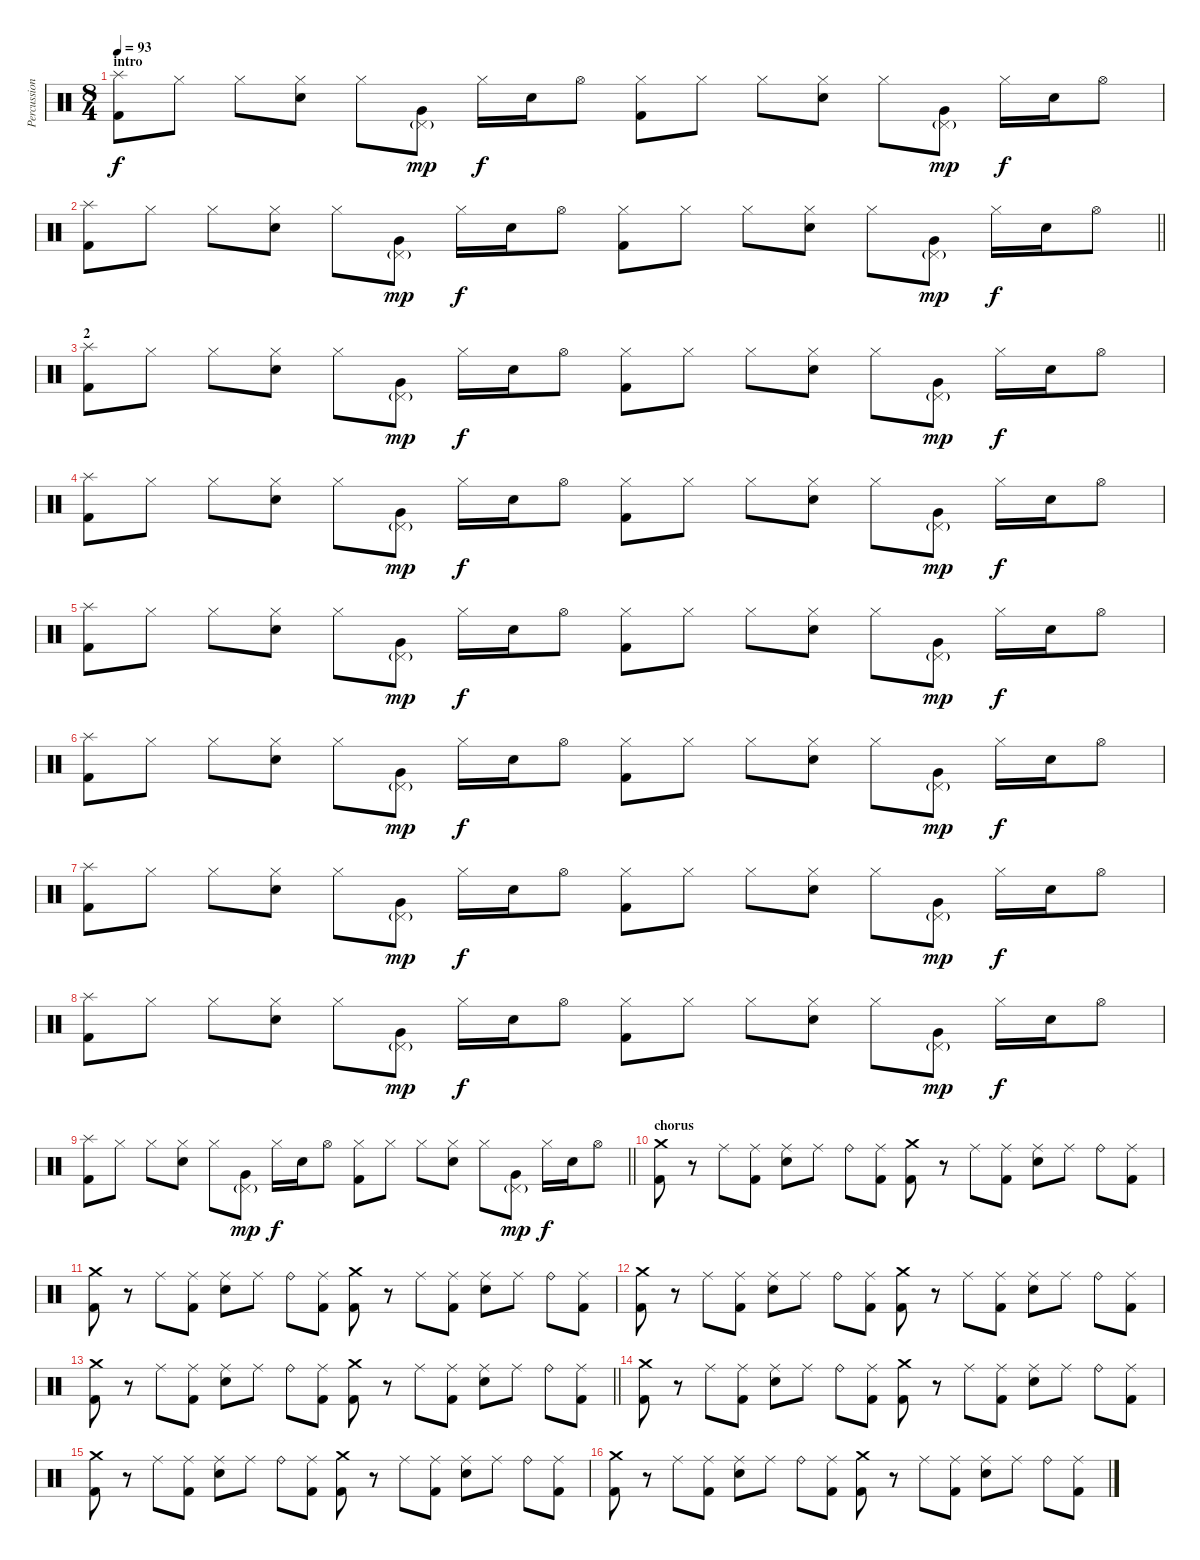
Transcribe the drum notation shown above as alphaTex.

\track ("Percussioni" "Percussion") {instrument percussion}
\staff {score}
\articulation defaults
\ts (8 4)
\section ("" "intro")
\tempo 93
\clef neutral
\ks c
("Splash (hit)" "Kick (hit) 2").8{dy f} "Hi-Hat (closed)".8 "Hi-Hat (closed)".8 ("Electric Snare (hit)" "Hi-Hat (closed)").8 "Hi-Hat (closed)".8 ("Very Low Tom (hit)" "Pedal Hi-Hat (hit)"{g}).8{dy mp} "Hi-Hat (closed)".16{dy f} "Electric Snare (hit)".16 "Hi-Hat (open)".8 ("Kick (hit) 2" "Hi-Hat (closed)").8 "Hi-Hat (closed)".8 "Hi-Hat (closed)".8 ("Electric Snare (hit)" "Hi-Hat (closed)").8 "Hi-Hat (closed)".8 ("Very Low Tom (hit)" "Pedal Hi-Hat (hit)"{g}).8{dy mp} "Hi-Hat (closed)".16{dy f} "Electric Snare (hit)".16 "Hi-Hat (open)".8 |
\barLineRight lightlight
("Splash (hit)" "Kick (hit) 2").8 "Hi-Hat (closed)".8 "Hi-Hat (closed)".8 ("Electric Snare (hit)" "Hi-Hat (closed)").8 "Hi-Hat (closed)".8 ("Very Low Tom (hit)" "Pedal Hi-Hat (hit)"{g}).8{dy mp} "Hi-Hat (closed)".16{dy f} "Electric Snare (hit)".16 "Hi-Hat (open)".8 ("Kick (hit) 2" "Hi-Hat (closed)").8 "Hi-Hat (closed)".8 "Hi-Hat (closed)".8 ("Electric Snare (hit)" "Hi-Hat (closed)").8 "Hi-Hat (closed)".8 ("Very Low Tom (hit)" "Pedal Hi-Hat (hit)"{g}).8{dy mp} "Hi-Hat (closed)".16{dy f} "Electric Snare (hit)".16 "Hi-Hat (open)".8 |
\section ("" "2")
("Splash (hit)" "Kick (hit) 2").8 "Hi-Hat (closed)".8 "Hi-Hat (closed)".8 ("Electric Snare (hit)" "Hi-Hat (closed)").8 "Hi-Hat (closed)".8 ("Very Low Tom (hit)" "Pedal Hi-Hat (hit)"{g}).8{dy mp} "Hi-Hat (closed)".16{dy f} "Electric Snare (hit)".16 "Hi-Hat (open)".8 ("Kick (hit) 2" "Hi-Hat (closed)").8 "Hi-Hat (closed)".8 "Hi-Hat (closed)".8 ("Electric Snare (hit)" "Hi-Hat (closed)").8 "Hi-Hat (closed)".8 ("Very Low Tom (hit)" "Pedal Hi-Hat (hit)"{g}).8{dy mp} "Hi-Hat (closed)".16{dy f} "Electric Snare (hit)".16 "Hi-Hat (open)".8 |
("Splash (hit)" "Kick (hit) 2").8 "Hi-Hat (closed)".8 "Hi-Hat (closed)".8 ("Electric Snare (hit)" "Hi-Hat (closed)").8 "Hi-Hat (closed)".8 ("Very Low Tom (hit)" "Pedal Hi-Hat (hit)"{g}).8{dy mp} "Hi-Hat (closed)".16{dy f} "Electric Snare (hit)".16 "Hi-Hat (open)".8 ("Kick (hit) 2" "Hi-Hat (closed)").8 "Hi-Hat (closed)".8 "Hi-Hat (closed)".8 ("Electric Snare (hit)" "Hi-Hat (closed)").8 "Hi-Hat (closed)".8 ("Very Low Tom (hit)" "Pedal Hi-Hat (hit)"{g}).8{dy mp} "Hi-Hat (closed)".16{dy f} "Electric Snare (hit)".16 "Hi-Hat (open)".8 |
("Splash (hit)" "Kick (hit) 2").8 "Hi-Hat (closed)".8 "Hi-Hat (closed)".8 ("Electric Snare (hit)" "Hi-Hat (closed)").8 "Hi-Hat (closed)".8 ("Very Low Tom (hit)" "Pedal Hi-Hat (hit)"{g}).8{dy mp} "Hi-Hat (closed)".16{dy f} "Electric Snare (hit)".16 "Hi-Hat (open)".8 ("Kick (hit) 2" "Hi-Hat (closed)").8 "Hi-Hat (closed)".8 "Hi-Hat (closed)".8 ("Electric Snare (hit)" "Hi-Hat (closed)").8 "Hi-Hat (closed)".8 ("Very Low Tom (hit)" "Pedal Hi-Hat (hit)"{g}).8{dy mp} "Hi-Hat (closed)".16{dy f} "Electric Snare (hit)".16 "Hi-Hat (open)".8 |
("Splash (hit)" "Kick (hit) 2").8 "Hi-Hat (closed)".8 "Hi-Hat (closed)".8 ("Electric Snare (hit)" "Hi-Hat (closed)").8 "Hi-Hat (closed)".8 ("Very Low Tom (hit)" "Pedal Hi-Hat (hit)"{g}).8{dy mp} "Hi-Hat (closed)".16{dy f} "Electric Snare (hit)".16 "Hi-Hat (open)".8 ("Kick (hit) 2" "Hi-Hat (closed)").8 "Hi-Hat (closed)".8 "Hi-Hat (closed)".8 ("Electric Snare (hit)" "Hi-Hat (closed)").8 "Hi-Hat (closed)".8 ("Very Low Tom (hit)" "Pedal Hi-Hat (hit)"{g}).8{dy mp} "Hi-Hat (closed)".16{dy f} "Electric Snare (hit)".16 "Hi-Hat (open)".8 |
("Splash (hit)" "Kick (hit) 2").8 "Hi-Hat (closed)".8 "Hi-Hat (closed)".8 ("Electric Snare (hit)" "Hi-Hat (closed)").8 "Hi-Hat (closed)".8 ("Very Low Tom (hit)" "Pedal Hi-Hat (hit)"{g}).8{dy mp} "Hi-Hat (closed)".16{dy f} "Electric Snare (hit)".16 "Hi-Hat (open)".8 ("Kick (hit) 2" "Hi-Hat (closed)").8 "Hi-Hat (closed)".8 "Hi-Hat (closed)".8 ("Electric Snare (hit)" "Hi-Hat (closed)").8 "Hi-Hat (closed)".8 ("Very Low Tom (hit)" "Pedal Hi-Hat (hit)"{g}).8{dy mp} "Hi-Hat (closed)".16{dy f} "Electric Snare (hit)".16 "Hi-Hat (open)".8 |
("Splash (hit)" "Kick (hit) 2").8 "Hi-Hat (closed)".8 "Hi-Hat (closed)".8 ("Electric Snare (hit)" "Hi-Hat (closed)").8 "Hi-Hat (closed)".8 ("Very Low Tom (hit)" "Pedal Hi-Hat (hit)"{g}).8{dy mp} "Hi-Hat (closed)".16{dy f} "Electric Snare (hit)".16 "Hi-Hat (open)".8 ("Kick (hit) 2" "Hi-Hat (closed)").8 "Hi-Hat (closed)".8 "Hi-Hat (closed)".8 ("Electric Snare (hit)" "Hi-Hat (closed)").8 "Hi-Hat (closed)".8 ("Very Low Tom (hit)" "Pedal Hi-Hat (hit)"{g}).8{dy mp} "Hi-Hat (closed)".16{dy f} "Electric Snare (hit)".16 "Hi-Hat (open)".8 |
\barLineRight lightlight
("Splash (hit)" "Kick (hit) 2").8 "Hi-Hat (closed)".8 "Hi-Hat (closed)".8 ("Electric Snare (hit)" "Hi-Hat (closed)").8 "Hi-Hat (closed)".8 ("Very Low Tom (hit)" "Pedal Hi-Hat (hit)"{g}).8{dy mp} "Hi-Hat (closed)".16{dy f} "Electric Snare (hit)".16 "Hi-Hat (open)".8 ("Kick (hit) 2" "Hi-Hat (closed)").8 "Hi-Hat (closed)".8 "Hi-Hat (closed)".8 ("Electric Snare (hit)" "Hi-Hat (closed)").8 "Hi-Hat (closed)".8 ("Very Low Tom (hit)" "Pedal Hi-Hat (hit)"{g}).8{dy mp} "Hi-Hat (closed)".16{dy f} "Electric Snare (hit)".16 "Hi-Hat (open)".8 |
\section ("" "chorus")
("Kick (hit) 2" "Crash medium (hit)").8 r.8 "Ride (middle)".8 ("Kick (hit) 2" "Ride (middle)").8 ("Electric Snare (hit)" "Ride (middle)").8 "Ride (middle)".8 "Ride (bell)".8 ("Kick (hit) 2" "Ride (middle)").8 ("Kick (hit) 2" "Crash medium (hit)").8 r.8 "Ride (middle)".8 ("Kick (hit) 2" "Ride (middle)").8 ("Electric Snare (hit)" "Ride (middle)").8 "Ride (middle)".8 "Ride (bell)".8 ("Kick (hit) 2" "Ride (middle)").8 |
("Kick (hit) 2" "Crash medium (hit)").8 r.8 "Ride (middle)".8 ("Kick (hit) 2" "Ride (middle)").8 ("Electric Snare (hit)" "Ride (middle)").8 "Ride (middle)".8 "Ride (bell)".8 ("Kick (hit) 2" "Ride (middle)").8 ("Kick (hit) 2" "Crash medium (hit)").8 r.8 "Ride (middle)".8 ("Kick (hit) 2" "Ride (middle)").8 ("Electric Snare (hit)" "Ride (middle)").8 "Ride (middle)".8 "Ride (bell)".8 ("Kick (hit) 2" "Ride (middle)").8 |
("Kick (hit) 2" "Crash medium (hit)").8 r.8 "Ride (middle)".8 ("Kick (hit) 2" "Ride (middle)").8 ("Electric Snare (hit)" "Ride (middle)").8 "Ride (middle)".8 "Ride (bell)".8 ("Kick (hit) 2" "Ride (middle)").8 ("Kick (hit) 2" "Crash medium (hit)").8 r.8 "Ride (middle)".8 ("Kick (hit) 2" "Ride (middle)").8 ("Electric Snare (hit)" "Ride (middle)").8 "Ride (middle)".8 "Ride (bell)".8 ("Kick (hit) 2" "Ride (middle)").8 |
\barLineRight lightlight
("Kick (hit) 2" "Crash medium (hit)").8 r.8 "Ride (middle)".8 ("Kick (hit) 2" "Ride (middle)").8 ("Electric Snare (hit)" "Ride (middle)").8 "Ride (middle)".8 "Ride (bell)".8 ("Kick (hit) 2" "Ride (middle)").8 ("Kick (hit) 2" "Crash medium (hit)").8 r.8 "Ride (middle)".8 ("Kick (hit) 2" "Ride (middle)").8 ("Electric Snare (hit)" "Ride (middle)").8 "Ride (middle)".8 "Ride (bell)".8 ("Kick (hit) 2" "Ride (middle)").8 |
("Kick (hit) 2" "Crash medium (hit)").8 r.8 "Ride (middle)".8 ("Kick (hit) 2" "Ride (middle)").8 ("Electric Snare (hit)" "Ride (middle)").8 "Ride (middle)".8 "Ride (bell)".8 ("Kick (hit) 2" "Ride (middle)").8 ("Kick (hit) 2" "Crash medium (hit)").8 r.8 "Ride (middle)".8 ("Kick (hit) 2" "Ride (middle)").8 ("Electric Snare (hit)" "Ride (middle)").8 "Ride (middle)".8 "Ride (bell)".8 ("Kick (hit) 2" "Ride (middle)").8 |
("Kick (hit) 2" "Crash medium (hit)").8 r.8 "Ride (middle)".8 ("Kick (hit) 2" "Ride (middle)").8 ("Electric Snare (hit)" "Ride (middle)").8 "Ride (middle)".8 "Ride (bell)".8 ("Kick (hit) 2" "Ride (middle)").8 ("Kick (hit) 2" "Crash medium (hit)").8 r.8 "Ride (middle)".8 ("Kick (hit) 2" "Ride (middle)").8 ("Electric Snare (hit)" "Ride (middle)").8 "Ride (middle)".8 "Ride (bell)".8 ("Kick (hit) 2" "Ride (middle)").8 |
("Kick (hit) 2" "Crash medium (hit)").8 r.8 "Ride (middle)".8 ("Kick (hit) 2" "Ride (middle)").8 ("Electric Snare (hit)" "Ride (middle)").8 "Ride (middle)".8 "Ride (bell)".8 ("Kick (hit) 2" "Ride (middle)").8 ("Kick (hit) 2" "Crash medium (hit)").8 r.8 "Ride (middle)".8 ("Kick (hit) 2" "Ride (middle)").8 ("Electric Snare (hit)" "Ride (middle)").8 "Ride (middle)".8 "Ride (bell)".8 ("Kick (hit) 2" "Ride (middle)").8
